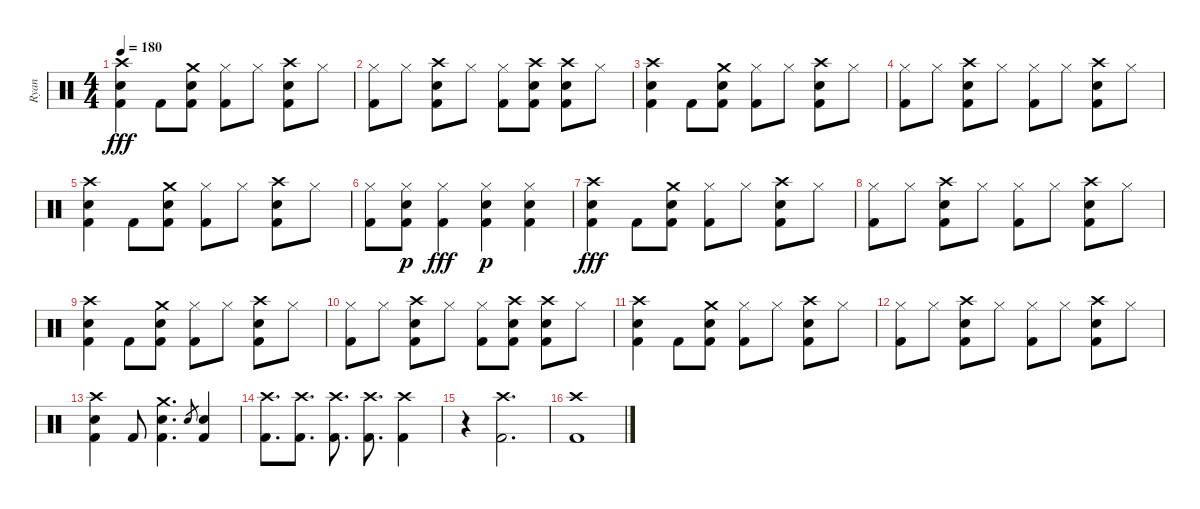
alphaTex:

\track ("Ryan" "Ryan") {instrument percussion}
\staff {score}
\articulation defaults
\ts (4 4)
\tempo 180
\clef neutral
\ks c
("Kick (hit) 2" "Snare (hit) 2" "Crash high (hit)").4{dy fff} "Kick (hit) 2".8 ("Kick (hit) 2" "Snare (hit) 2" "Crash medium (hit)").8 ("Kick (hit) 2" "Hi-Hat (closed)").8 "Hi-Hat (closed)".8 ("Snare (hit) 2" "Crash high (hit)" "Kick (hit) 2").8 "Hi-Hat (closed)".8 |
("Kick (hit) 2" "Hi-Hat (closed)").8 "Hi-Hat (closed)".8 ("Snare (hit) 2" "Crash high (hit)" "Kick (hit) 2").8 "Hi-Hat (closed)".8 ("Kick (hit) 2" "Hi-Hat (closed)").8 ("Snare (hit) 2" "Crash high (hit)" "Kick (hit) 2").8 ("Snare (hit) 2" "Crash high (hit)" "Kick (hit) 2").8 "Hi-Hat (closed)".8 |
("Kick (hit) 2" "Snare (hit) 2" "Crash high (hit)").4 "Kick (hit) 2".8 ("Kick (hit) 2" "Snare (hit) 2" "Crash medium (hit)").8 ("Kick (hit) 2" "Hi-Hat (closed)").8 "Hi-Hat (closed)".8 ("Snare (hit) 2" "Crash high (hit)" "Kick (hit) 2").8 "Hi-Hat (closed)".8 |
("Kick (hit) 2" "Hi-Hat (closed)").8 "Hi-Hat (closed)".8 ("Snare (hit) 2" "Crash high (hit)" "Kick (hit) 2").8 "Hi-Hat (closed)".8 ("Kick (hit) 2" "Hi-Hat (closed)").8 "Hi-Hat (closed)".8 ("Snare (hit) 2" "Crash high (hit)" "Kick (hit) 2").8 "Hi-Hat (closed)".8 |
("Kick (hit) 2" "Snare (hit) 2" "Crash high (hit)").4 "Kick (hit) 2".8 ("Kick (hit) 2" "Snare (hit) 2" "Crash medium (hit)").8 ("Kick (hit) 2" "Hi-Hat (closed)").8 "Hi-Hat (closed)".8 ("Snare (hit) 2" "Crash high (hit)" "Kick (hit) 2").8 "Hi-Hat (closed)".8 |
("Kick (hit) 2" "Hi-Hat (closed)").8 ("Snare (hit) 2" "Hi-Hat (closed)" "Kick (hit) 2").8{dy p} ("Kick (hit) 2" "Hi-Hat (closed)").4{dy fff} ("Snare (hit) 2" "Hi-Hat (closed)" "Kick (hit) 2").4{dy p} ("Snare (hit) 2" "Hi-Hat (closed)" "Kick (hit) 2").4 |
("Kick (hit) 2" "Snare (hit) 2" "Crash high (hit)").4{dy fff} "Kick (hit) 2".8 ("Kick (hit) 2" "Snare (hit) 2" "Crash medium (hit)").8 ("Kick (hit) 2" "Hi-Hat (closed)").8 "Hi-Hat (closed)".8 ("Snare (hit) 2" "Crash high (hit)" "Kick (hit) 2").8 "Hi-Hat (closed)".8 |
("Kick (hit) 2" "Hi-Hat (closed)").8 "Hi-Hat (closed)".8 ("Snare (hit) 2" "Crash high (hit)" "Kick (hit) 2").8 "Hi-Hat (closed)".8 ("Kick (hit) 2" "Hi-Hat (closed)").8 "Hi-Hat (closed)".8 ("Snare (hit) 2" "Crash high (hit)" "Kick (hit) 2").8 "Hi-Hat (closed)".8 |
("Kick (hit) 2" "Snare (hit) 2" "Crash high (hit)").4 "Kick (hit) 2".8 ("Kick (hit) 2" "Snare (hit) 2" "Crash medium (hit)").8 ("Kick (hit) 2" "Hi-Hat (closed)").8 "Hi-Hat (closed)".8 ("Snare (hit) 2" "Crash high (hit)" "Kick (hit) 2").8 "Hi-Hat (closed)".8 |
("Kick (hit) 2" "Hi-Hat (closed)").8 "Hi-Hat (closed)".8 ("Snare (hit) 2" "Crash high (hit)" "Kick (hit) 2").8 "Hi-Hat (closed)".8 ("Kick (hit) 2" "Hi-Hat (closed)").8 ("Snare (hit) 2" "Crash high (hit)" "Kick (hit) 2").8 ("Snare (hit) 2" "Crash high (hit)" "Kick (hit) 2").8 "Hi-Hat (closed)".8 |
("Kick (hit) 2" "Snare (hit) 2" "Crash high (hit)").4 "Kick (hit) 2".8 ("Kick (hit) 2" "Snare (hit) 2" "Crash medium (hit)").8 ("Kick (hit) 2" "Hi-Hat (closed)").8 "Hi-Hat (closed)".8 ("Snare (hit) 2" "Crash high (hit)" "Kick (hit) 2").8 "Hi-Hat (closed)".8 |
("Kick (hit) 2" "Hi-Hat (closed)").8 "Hi-Hat (closed)".8 ("Snare (hit) 2" "Crash high (hit)" "Kick (hit) 2").8 "Hi-Hat (closed)".8 ("Kick (hit) 2" "Hi-Hat (closed)").8 "Hi-Hat (closed)".8 ("Snare (hit) 2" "Crash high (hit)" "Kick (hit) 2").8 "Hi-Hat (closed)".8 |
("Kick (hit) 2" "Snare (hit) 2" "Crash high (hit)").4 "Kick (hit) 2".8 ("Kick (hit) 2" "Snare (hit) 2" "Crash medium (hit)").4{d} "Snare (hit) 2".8{gr} ("Snare (hit) 2" "Kick (hit) 2").4 |
("Kick (hit) 2" "Crash high (hit)").8{d} ("Kick (hit) 2" "Crash high (hit)").8{d} ("Kick (hit) 2" "Crash high (hit)").8{d} ("Kick (hit) 2" "Crash high (hit)").8{d} ("Kick (hit) 2" "Crash high (hit)").4 |
r.4 ("Kick (hit) 2" "Crash high (hit)").2{d} |
("Kick (hit) 2" "Crash high (hit)").1
